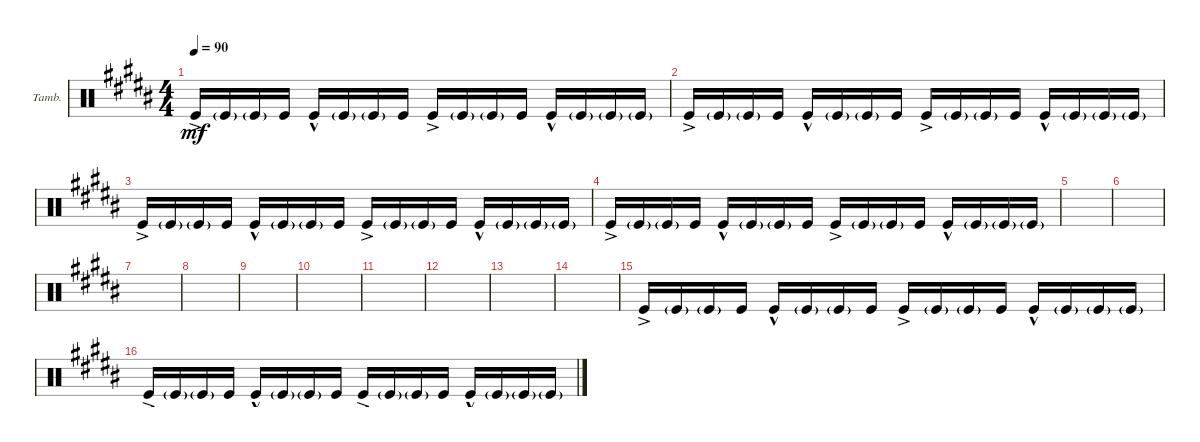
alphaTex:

\defaultSystemsLayout 4
\bracketExtendMode groupsimilarinstruments
\firstSystemTrackNameOrientation horizontal
\otherSystemsTrackNameOrientation horizontal
\track ("Tambourine" "Tamb.") {instrument percussion}
\staff {score}
\articulation defaults
\ts (4 4)
\tempo 90
\clef neutral
\ks b "Kick (hit)"{ac}.16{dy mf} "Kick (hit)"{g}.16 "Kick (hit)"{g}.16 "Kick (hit)".16 "Kick (hit)"{hac}.16 "Kick (hit)"{g}.16 "Kick (hit)"{g}.16 "Kick (hit)".16 "Kick (hit)"{ac}.16 "Kick (hit)"{g}.16 "Kick (hit)"{g}.16 "Kick (hit)".16 "Kick (hit)"{hac}.16 "Kick (hit)"{g}.16 "Kick (hit)"{g}.16 "Kick (hit)"{g}.16
|
"Kick (hit)"{ac}.16 "Kick (hit)"{g}.16 "Kick (hit)"{g}.16 "Kick (hit)".16 "Kick (hit)"{hac}.16 "Kick (hit)"{g}.16 "Kick (hit)"{g}.16 "Kick (hit)".16 "Kick (hit)"{ac}.16 "Kick (hit)"{g}.16 "Kick (hit)"{g}.16 "Kick (hit)".16 "Kick (hit)"{hac}.16 "Kick (hit)"{g}.16 "Kick (hit)"{g}.16 "Kick (hit)"{g}.16 |
"Kick (hit)"{ac}.16 "Kick (hit)"{g}.16 "Kick (hit)"{g}.16 "Kick (hit)".16 "Kick (hit)"{hac}.16 "Kick (hit)"{g}.16 "Kick (hit)"{g}.16 "Kick (hit)".16 "Kick (hit)"{ac}.16 "Kick (hit)"{g}.16 "Kick (hit)"{g}.16 "Kick (hit)".16 "Kick (hit)"{hac}.16 "Kick (hit)"{g}.16 "Kick (hit)"{g}.16 "Kick (hit)"{g}.16 |
"Kick (hit)"{ac}.16 "Kick (hit)"{g}.16 "Kick (hit)"{g}.16 "Kick (hit)".16 "Kick (hit)"{hac}.16 "Kick (hit)"{g}.16 "Kick (hit)"{g}.16 "Kick (hit)".16 "Kick (hit)"{ac}.16 "Kick (hit)"{g}.16 "Kick (hit)"{g}.16 "Kick (hit)".16 "Kick (hit)"{hac}.16 "Kick (hit)"{g}.16 "Kick (hit)"{g}.16 "Kick (hit)"{g}.16 |
|
|
|
|
|
|
|
|
|
|
"Kick (hit)"{ac}.16 "Kick (hit)"{g}.16 "Kick (hit)"{g}.16 "Kick (hit)".16 "Kick (hit)"{hac}.16 "Kick (hit)"{g}.16 "Kick (hit)"{g}.16 "Kick (hit)".16 "Kick (hit)"{ac}.16 "Kick (hit)"{g}.16 "Kick (hit)"{g}.16 "Kick (hit)".16 "Kick (hit)"{hac}.16 "Kick (hit)"{g}.16 "Kick (hit)"{g}.16 "Kick (hit)"{g}.16 |
"Kick (hit)"{ac}.16 "Kick (hit)"{g}.16 "Kick (hit)"{g}.16 "Kick (hit)".16 "Kick (hit)"{hac}.16 "Kick (hit)"{g}.16 "Kick (hit)"{g}.16 "Kick (hit)".16 "Kick (hit)"{ac}.16 "Kick (hit)"{g}.16 "Kick (hit)"{g}.16 "Kick (hit)".16 "Kick (hit)"{hac}.16 "Kick (hit)"{g}.16 "Kick (hit)"{g}.16 "Kick (hit)"{g}.16
